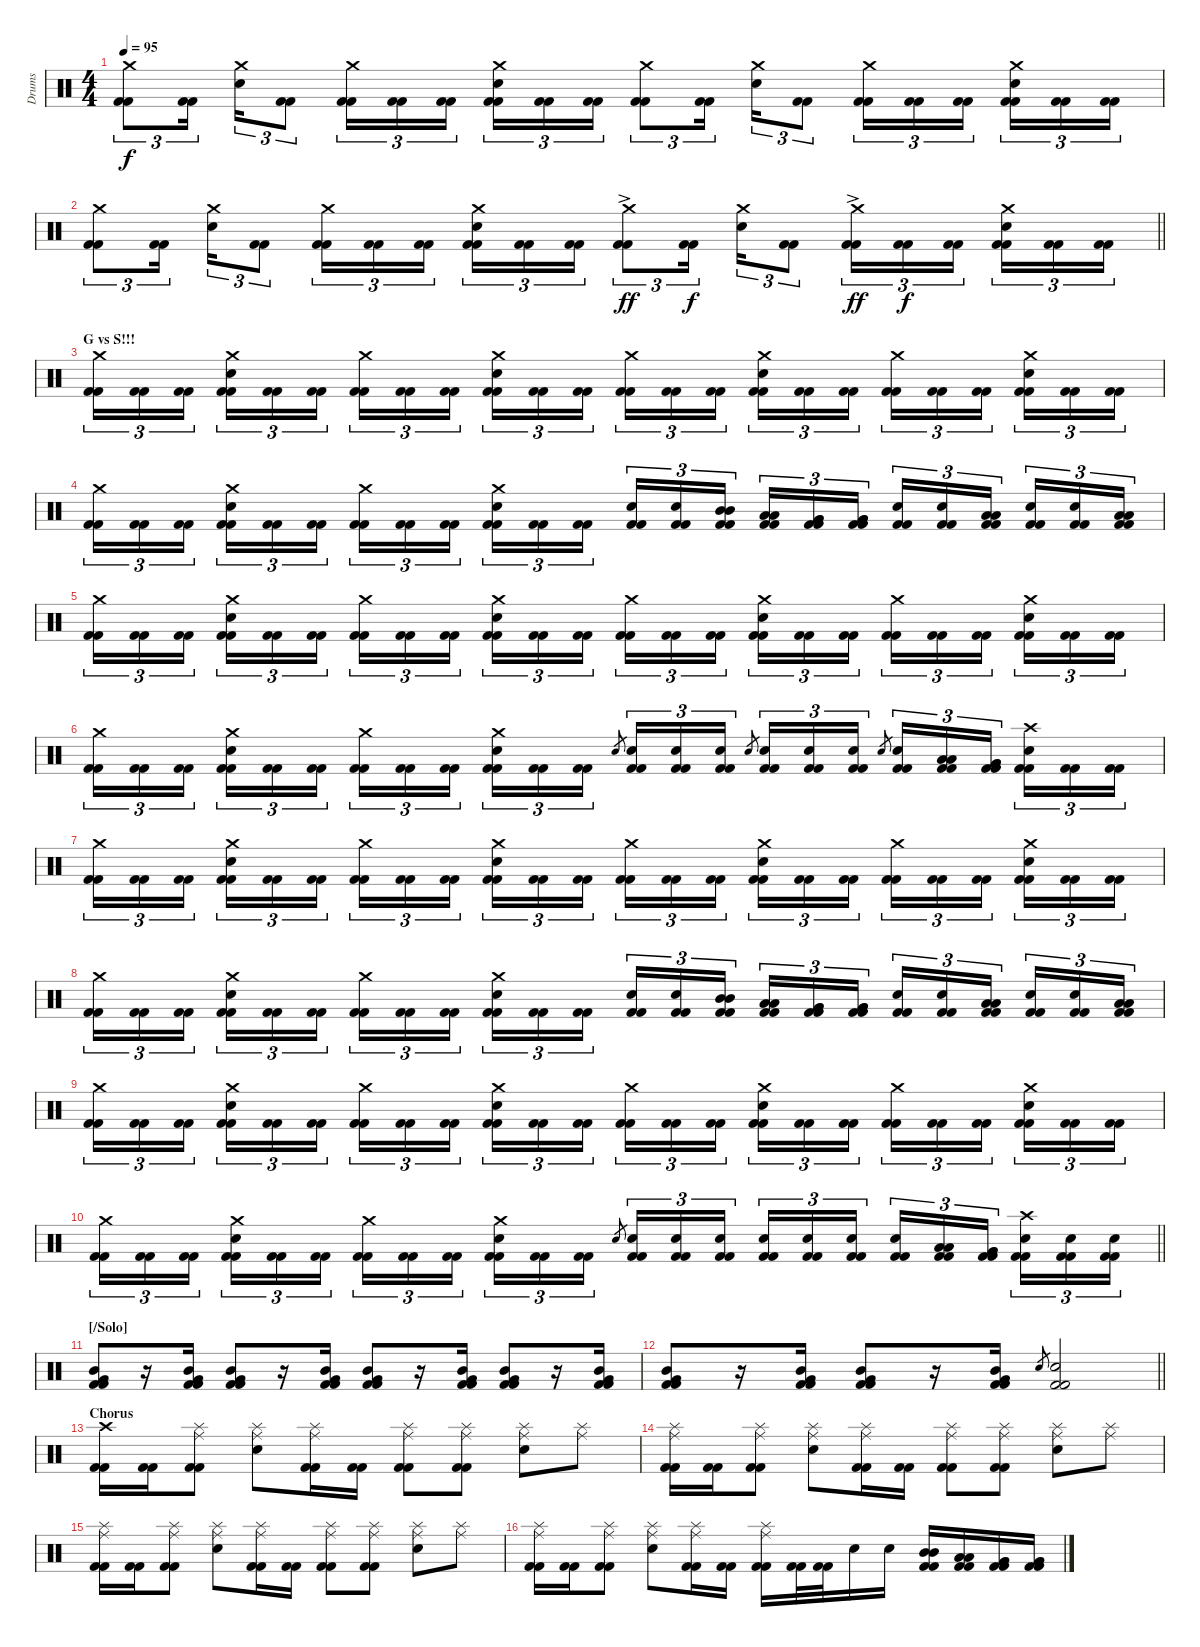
\track ("Drums" "Drums") {instrument percussion}
\staff {score}
\articulation defaults
\ts (4 4)
\tempo 95
\clef neutral
\ks c
("Crash medium (hit)" "Kick (hit) 2" "Kick (hit) 2").8{tu (3 2) dy f} ("Kick (hit) 2" "Kick (hit) 2").16{tu (3 2) beam splitsecondary} ("Crash medium (hit)" "Electric Snare (hit)").16{tu (3 2)} ("Kick (hit) 2" "Kick (hit) 2").8{tu (3 2)} ("Crash medium (hit)" "Kick (hit) 2" "Kick (hit) 2").16{tu (3 2)} ("Kick (hit) 2" "Kick (hit) 2").16{tu (3 2)} ("Kick (hit) 2" "Kick (hit) 2").16{tu (3 2) beam splitsecondary} ("Crash medium (hit)" "Electric Snare (hit)" "Kick (hit) 2" "Kick (hit) 2").16{tu (3 2)} ("Kick (hit) 2" "Kick (hit) 2").16{tu (3 2)} ("Kick (hit) 2" "Kick (hit) 2").16{tu (3 2)} ("Crash medium (hit)" "Kick (hit) 2" "Kick (hit) 2").8{tu (3 2)} ("Kick (hit) 2" "Kick (hit) 2").16{tu (3 2) beam splitsecondary} ("Crash medium (hit)" "Electric Snare (hit)").16{tu (3 2)} ("Kick (hit) 2" "Kick (hit) 2").8{tu (3 2)} ("Crash medium (hit)" "Kick (hit) 2" "Kick (hit) 2").16{tu (3 2)} ("Kick (hit) 2" "Kick (hit) 2").16{tu (3 2)} ("Kick (hit) 2" "Kick (hit) 2").16{tu (3 2) beam splitsecondary} ("Crash medium (hit)" "Electric Snare (hit)" "Kick (hit) 2" "Kick (hit) 2").16{tu (3 2)} ("Kick (hit) 2" "Kick (hit) 2").16{tu (3 2)} ("Kick (hit) 2" "Kick (hit) 2").16{tu (3 2)} |
\barLineRight lightlight
("Crash medium (hit)" "Kick (hit) 2" "Kick (hit) 2").8{tu (3 2)} ("Kick (hit) 2" "Kick (hit) 2").16{tu (3 2) beam splitsecondary} ("Crash medium (hit)" "Electric Snare (hit)").16{tu (3 2)} ("Kick (hit) 2" "Kick (hit) 2").8{tu (3 2)} ("Crash medium (hit)" "Kick (hit) 2" "Kick (hit) 2").16{tu (3 2)} ("Kick (hit) 2" "Kick (hit) 2").16{tu (3 2)} ("Kick (hit) 2" "Kick (hit) 2").16{tu (3 2) beam splitsecondary} ("Crash medium (hit)" "Electric Snare (hit)" "Kick (hit) 2" "Kick (hit) 2").16{tu (3 2)} ("Kick (hit) 2" "Kick (hit) 2").16{tu (3 2)} ("Kick (hit) 2" "Kick (hit) 2").16{tu (3 2)} ("Crash medium (hit)"{ac} "Kick (hit) 2" "Kick (hit) 2").8{tu (3 2) dy ff} ("Kick (hit) 2" "Kick (hit) 2").16{tu (3 2) dy f beam splitsecondary} ("Crash medium (hit)" "Electric Snare (hit)").16{tu (3 2)} ("Kick (hit) 2" "Kick (hit) 2").8{tu (3 2)} ("Crash medium (hit)"{ac} "Kick (hit) 2" "Kick (hit) 2").16{tu (3 2) dy ff} ("Kick (hit) 2" "Kick (hit) 2").16{tu (3 2) dy f} ("Kick (hit) 2" "Kick (hit) 2").16{tu (3 2) beam splitsecondary} ("Crash medium (hit)" "Electric Snare (hit)" "Kick (hit) 2" "Kick (hit) 2").16{tu (3 2)} ("Kick (hit) 2" "Kick (hit) 2").16{tu (3 2)} ("Kick (hit) 2" "Kick (hit) 2").16{tu (3 2)} |
\section ("" "G vs S!!!")
("Crash medium (hit)" "Kick (hit) 2" "Kick (hit) 2").16{tu (3 2)} ("Kick (hit) 2" "Kick (hit) 2").16{tu (3 2)} ("Kick (hit) 2" "Kick (hit) 2").16{tu (3 2) beam splitsecondary} ("Crash medium (hit)" "Electric Snare (hit)" "Kick (hit) 2" "Kick (hit) 2").16{tu (3 2)} ("Kick (hit) 2" "Kick (hit) 2").16{tu (3 2)} ("Kick (hit) 2" "Kick (hit) 2").16{tu (3 2)} ("Crash medium (hit)" "Kick (hit) 2" "Kick (hit) 2").16{tu (3 2)} ("Kick (hit) 2" "Kick (hit) 2").16{tu (3 2)} ("Kick (hit) 2" "Kick (hit) 2").16{tu (3 2) beam splitsecondary} ("Crash medium (hit)" "Electric Snare (hit)" "Kick (hit) 2" "Kick (hit) 2").16{tu (3 2)} ("Kick (hit) 2" "Kick (hit) 2").16{tu (3 2)} ("Kick (hit) 2" "Kick (hit) 2").16{tu (3 2)} ("Crash medium (hit)" "Kick (hit) 2" "Kick (hit) 2").16{tu (3 2)} ("Kick (hit) 2" "Kick (hit) 2").16{tu (3 2)} ("Kick (hit) 2" "Kick (hit) 2").16{tu (3 2) beam splitsecondary} ("Crash medium (hit)" "Electric Snare (hit)" "Kick (hit) 2" "Kick (hit) 2").16{tu (3 2)} ("Kick (hit) 2" "Kick (hit) 2").16{tu (3 2)} ("Kick (hit) 2" "Kick (hit) 2").16{tu (3 2)} ("Crash medium (hit)" "Kick (hit) 2" "Kick (hit) 2").16{tu (3 2)} ("Kick (hit) 2" "Kick (hit) 2").16{tu (3 2)} ("Kick (hit) 2" "Kick (hit) 2").16{tu (3 2) beam splitsecondary} ("Crash medium (hit)" "Electric Snare (hit)" "Kick (hit) 2" "Kick (hit) 2").16{tu (3 2)} ("Kick (hit) 2" "Kick (hit) 2").16{tu (3 2)} ("Kick (hit) 2" "Kick (hit) 2").16{tu (3 2)} |
("Crash medium (hit)" "Kick (hit) 2" "Kick (hit) 2").16{tu (3 2)} ("Kick (hit) 2" "Kick (hit) 2").16{tu (3 2)} ("Kick (hit) 2" "Kick (hit) 2").16{tu (3 2) beam splitsecondary} ("Crash medium (hit)" "Electric Snare (hit)" "Kick (hit) 2" "Kick (hit) 2").16{tu (3 2)} ("Kick (hit) 2" "Kick (hit) 2").16{tu (3 2)} ("Kick (hit) 2" "Kick (hit) 2").16{tu (3 2)} ("Crash medium (hit)" "Kick (hit) 2" "Kick (hit) 2").16{tu (3 2)} ("Kick (hit) 2" "Kick (hit) 2").16{tu (3 2)} ("Kick (hit) 2" "Kick (hit) 2").16{tu (3 2) beam splitsecondary} ("Crash medium (hit)" "Electric Snare (hit)" "Kick (hit) 2" "Kick (hit) 2").16{tu (3 2)} ("Kick (hit) 2" "Kick (hit) 2").16{tu (3 2)} ("Kick (hit) 2" "Kick (hit) 2").16{tu (3 2)} ("Electric Snare (hit)" "Kick (hit) 2" "Kick (hit) 2").16{tu (3 2)} ("Electric Snare (hit)" "Kick (hit) 2" "Kick (hit) 2").16{tu (3 2)} ("Mid Tom (hit)" "Mid Tom (hit)" "Kick (hit) 2" "Kick (hit) 2").16{tu (3 2) beam splitsecondary} ("Low Tom (hit)" "Low Tom (hit)" "Kick (hit) 2" "Kick (hit) 2").16{tu (3 2)} ("Very Low Tom (hit)" "Very Low Tom (hit)" "Kick (hit) 2" "Kick (hit) 2").16{tu (3 2)} ("Very Low Tom (hit)" "Very Low Tom (hit)" "Kick (hit) 2" "Kick (hit) 2").16{tu (3 2)} ("Electric Snare (hit)" "Kick (hit) 2" "Kick (hit) 2").16{tu (3 2)} ("Electric Snare (hit)" "Kick (hit) 2" "Kick (hit) 2").16{tu (3 2)} ("Low Tom (hit)" "Low Tom (hit)" "Kick (hit) 2" "Kick (hit) 2").16{tu (3 2) beam splitsecondary} ("Electric Snare (hit)" "Kick (hit) 2" "Kick (hit) 2").16{tu (3 2)} ("Electric Snare (hit)" "Kick (hit) 2" "Kick (hit) 2").16{tu (3 2)} ("Low Tom (hit)" "Low Tom (hit)" "Kick (hit) 2" "Kick (hit) 2").16{tu (3 2)} |
("Crash medium (hit)" "Kick (hit) 2" "Kick (hit) 2").16{tu (3 2)} ("Kick (hit) 2" "Kick (hit) 2").16{tu (3 2)} ("Kick (hit) 2" "Kick (hit) 2").16{tu (3 2) beam splitsecondary} ("Crash medium (hit)" "Electric Snare (hit)" "Kick (hit) 2" "Kick (hit) 2").16{tu (3 2)} ("Kick (hit) 2" "Kick (hit) 2").16{tu (3 2)} ("Kick (hit) 2" "Kick (hit) 2").16{tu (3 2)} ("Crash medium (hit)" "Kick (hit) 2" "Kick (hit) 2").16{tu (3 2)} ("Kick (hit) 2" "Kick (hit) 2").16{tu (3 2)} ("Kick (hit) 2" "Kick (hit) 2").16{tu (3 2) beam splitsecondary} ("Crash medium (hit)" "Electric Snare (hit)" "Kick (hit) 2" "Kick (hit) 2").16{tu (3 2)} ("Kick (hit) 2" "Kick (hit) 2").16{tu (3 2)} ("Kick (hit) 2" "Kick (hit) 2").16{tu (3 2)} ("Crash medium (hit)" "Kick (hit) 2" "Kick (hit) 2").16{tu (3 2)} ("Kick (hit) 2" "Kick (hit) 2").16{tu (3 2)} ("Kick (hit) 2" "Kick (hit) 2").16{tu (3 2) beam splitsecondary} ("Crash medium (hit)" "Electric Snare (hit)" "Kick (hit) 2" "Kick (hit) 2").16{tu (3 2)} ("Kick (hit) 2" "Kick (hit) 2").16{tu (3 2)} ("Kick (hit) 2" "Kick (hit) 2").16{tu (3 2)} ("Crash medium (hit)" "Kick (hit) 2" "Kick (hit) 2").16{tu (3 2)} ("Kick (hit) 2" "Kick (hit) 2").16{tu (3 2)} ("Kick (hit) 2" "Kick (hit) 2").16{tu (3 2) beam splitsecondary} ("Crash medium (hit)" "Electric Snare (hit)" "Kick (hit) 2" "Kick (hit) 2").16{tu (3 2)} ("Kick (hit) 2" "Kick (hit) 2").16{tu (3 2)} ("Kick (hit) 2" "Kick (hit) 2").16{tu (3 2)} |
("Crash medium (hit)" "Kick (hit) 2" "Kick (hit) 2").16{tu (3 2)} ("Kick (hit) 2" "Kick (hit) 2").16{tu (3 2)} ("Kick (hit) 2" "Kick (hit) 2").16{tu (3 2) beam splitsecondary} ("Crash medium (hit)" "Electric Snare (hit)" "Kick (hit) 2" "Kick (hit) 2").16{tu (3 2)} ("Kick (hit) 2" "Kick (hit) 2").16{tu (3 2)} ("Kick (hit) 2" "Kick (hit) 2").16{tu (3 2)} ("Crash medium (hit)" "Kick (hit) 2" "Kick (hit) 2").16{tu (3 2)} ("Kick (hit) 2" "Kick (hit) 2").16{tu (3 2)} ("Kick (hit) 2" "Kick (hit) 2").16{tu (3 2) beam splitsecondary} ("Crash medium (hit)" "Electric Snare (hit)" "Kick (hit) 2" "Kick (hit) 2").16{tu (3 2)} ("Kick (hit) 2" "Kick (hit) 2").16{tu (3 2)} ("Kick (hit) 2" "Kick (hit) 2").16{tu (3 2)} "Electric Snare (hit)".8{gr} ("Electric Snare (hit)" "Kick (hit) 2" "Kick (hit) 2").16{tu (3 2)} ("Electric Snare (hit)" "Kick (hit) 2" "Kick (hit) 2").16{tu (3 2)} ("Electric Snare (hit)" "Kick (hit) 2" "Kick (hit) 2").16{tu (3 2)} "Electric Snare (hit)".8{gr beam splitsecondary} ("Electric Snare (hit)" "Kick (hit) 2" "Kick (hit) 2").16{tu (3 2)} ("Electric Snare (hit)" "Kick (hit) 2" "Kick (hit) 2").16{tu (3 2)} ("Electric Snare (hit)" "Kick (hit) 2" "Kick (hit) 2").16{tu (3 2)} "Electric Snare (hit)".8{gr} ("Electric Snare (hit)" "Kick (hit) 2" "Kick (hit) 2").16{tu (3 2)} ("Low Tom (hit)" "Low Tom (hit)" "Kick (hit) 2" "Kick (hit) 2").16{tu (3 2)} ("Very Low Tom (hit)" "Very Low Tom (hit)" "Kick (hit) 2" "Kick (hit) 2").16{tu (3 2) beam splitsecondary} ("Crash high (hit)" "Electric Snare (hit)" "Kick (hit) 2" "Kick (hit) 2").16{tu (3 2)} ("Kick (hit) 2" "Kick (hit) 2").16{tu (3 2)} ("Kick (hit) 2" "Kick (hit) 2").16{tu (3 2)} |
("Crash medium (hit)" "Kick (hit) 2" "Kick (hit) 2").16{tu (3 2)} ("Kick (hit) 2" "Kick (hit) 2").16{tu (3 2)} ("Kick (hit) 2" "Kick (hit) 2").16{tu (3 2) beam splitsecondary} ("Crash medium (hit)" "Electric Snare (hit)" "Kick (hit) 2" "Kick (hit) 2").16{tu (3 2)} ("Kick (hit) 2" "Kick (hit) 2").16{tu (3 2)} ("Kick (hit) 2" "Kick (hit) 2").16{tu (3 2)} ("Crash medium (hit)" "Kick (hit) 2" "Kick (hit) 2").16{tu (3 2)} ("Kick (hit) 2" "Kick (hit) 2").16{tu (3 2)} ("Kick (hit) 2" "Kick (hit) 2").16{tu (3 2) beam splitsecondary} ("Crash medium (hit)" "Electric Snare (hit)" "Kick (hit) 2" "Kick (hit) 2").16{tu (3 2)} ("Kick (hit) 2" "Kick (hit) 2").16{tu (3 2)} ("Kick (hit) 2" "Kick (hit) 2").16{tu (3 2)} ("Crash medium (hit)" "Kick (hit) 2" "Kick (hit) 2").16{tu (3 2)} ("Kick (hit) 2" "Kick (hit) 2").16{tu (3 2)} ("Kick (hit) 2" "Kick (hit) 2").16{tu (3 2) beam splitsecondary} ("Crash medium (hit)" "Electric Snare (hit)" "Kick (hit) 2" "Kick (hit) 2").16{tu (3 2)} ("Kick (hit) 2" "Kick (hit) 2").16{tu (3 2)} ("Kick (hit) 2" "Kick (hit) 2").16{tu (3 2)} ("Crash medium (hit)" "Kick (hit) 2" "Kick (hit) 2").16{tu (3 2)} ("Kick (hit) 2" "Kick (hit) 2").16{tu (3 2)} ("Kick (hit) 2" "Kick (hit) 2").16{tu (3 2) beam splitsecondary} ("Crash medium (hit)" "Electric Snare (hit)" "Kick (hit) 2" "Kick (hit) 2").16{tu (3 2)} ("Kick (hit) 2" "Kick (hit) 2").16{tu (3 2)} ("Kick (hit) 2" "Kick (hit) 2").16{tu (3 2)} |
("Crash medium (hit)" "Kick (hit) 2" "Kick (hit) 2").16{tu (3 2)} ("Kick (hit) 2" "Kick (hit) 2").16{tu (3 2)} ("Kick (hit) 2" "Kick (hit) 2").16{tu (3 2) beam splitsecondary} ("Crash medium (hit)" "Electric Snare (hit)" "Kick (hit) 2" "Kick (hit) 2").16{tu (3 2)} ("Kick (hit) 2" "Kick (hit) 2").16{tu (3 2)} ("Kick (hit) 2" "Kick (hit) 2").16{tu (3 2)} ("Crash medium (hit)" "Kick (hit) 2" "Kick (hit) 2").16{tu (3 2)} ("Kick (hit) 2" "Kick (hit) 2").16{tu (3 2)} ("Kick (hit) 2" "Kick (hit) 2").16{tu (3 2) beam splitsecondary} ("Crash medium (hit)" "Electric Snare (hit)" "Kick (hit) 2" "Kick (hit) 2").16{tu (3 2)} ("Kick (hit) 2" "Kick (hit) 2").16{tu (3 2)} ("Kick (hit) 2" "Kick (hit) 2").16{tu (3 2)} ("Electric Snare (hit)" "Kick (hit) 2" "Kick (hit) 2").16{tu (3 2)} ("Electric Snare (hit)" "Kick (hit) 2" "Kick (hit) 2").16{tu (3 2)} ("Mid Tom (hit)" "Mid Tom (hit)" "Kick (hit) 2" "Kick (hit) 2").16{tu (3 2) beam splitsecondary} ("Low Tom (hit)" "Low Tom (hit)" "Kick (hit) 2" "Kick (hit) 2").16{tu (3 2)} ("Very Low Tom (hit)" "Very Low Tom (hit)" "Kick (hit) 2" "Kick (hit) 2").16{tu (3 2)} ("Very Low Tom (hit)" "Very Low Tom (hit)" "Kick (hit) 2" "Kick (hit) 2").16{tu (3 2)} ("Electric Snare (hit)" "Kick (hit) 2" "Kick (hit) 2").16{tu (3 2)} ("Electric Snare (hit)" "Kick (hit) 2" "Kick (hit) 2").16{tu (3 2)} ("Low Tom (hit)" "Low Tom (hit)" "Kick (hit) 2" "Kick (hit) 2").16{tu (3 2) beam splitsecondary} ("Electric Snare (hit)" "Kick (hit) 2" "Kick (hit) 2").16{tu (3 2)} ("Electric Snare (hit)" "Kick (hit) 2" "Kick (hit) 2").16{tu (3 2)} ("Low Tom (hit)" "Low Tom (hit)" "Kick (hit) 2" "Kick (hit) 2").16{tu (3 2)} |
("Crash medium (hit)" "Kick (hit) 2" "Kick (hit) 2").16{tu (3 2)} ("Kick (hit) 2" "Kick (hit) 2").16{tu (3 2)} ("Kick (hit) 2" "Kick (hit) 2").16{tu (3 2) beam splitsecondary} ("Crash medium (hit)" "Electric Snare (hit)" "Kick (hit) 2" "Kick (hit) 2").16{tu (3 2)} ("Kick (hit) 2" "Kick (hit) 2").16{tu (3 2)} ("Kick (hit) 2" "Kick (hit) 2").16{tu (3 2)} ("Crash medium (hit)" "Kick (hit) 2" "Kick (hit) 2").16{tu (3 2)} ("Kick (hit) 2" "Kick (hit) 2").16{tu (3 2)} ("Kick (hit) 2" "Kick (hit) 2").16{tu (3 2) beam splitsecondary} ("Crash medium (hit)" "Electric Snare (hit)" "Kick (hit) 2" "Kick (hit) 2").16{tu (3 2)} ("Kick (hit) 2" "Kick (hit) 2").16{tu (3 2)} ("Kick (hit) 2" "Kick (hit) 2").16{tu (3 2)} ("Crash medium (hit)" "Kick (hit) 2" "Kick (hit) 2").16{tu (3 2)} ("Kick (hit) 2" "Kick (hit) 2").16{tu (3 2)} ("Kick (hit) 2" "Kick (hit) 2").16{tu (3 2) beam splitsecondary} ("Crash medium (hit)" "Electric Snare (hit)" "Kick (hit) 2" "Kick (hit) 2").16{tu (3 2)} ("Kick (hit) 2" "Kick (hit) 2").16{tu (3 2)} ("Kick (hit) 2" "Kick (hit) 2").16{tu (3 2)} ("Crash medium (hit)" "Kick (hit) 2" "Kick (hit) 2").16{tu (3 2)} ("Kick (hit) 2" "Kick (hit) 2").16{tu (3 2)} ("Kick (hit) 2" "Kick (hit) 2").16{tu (3 2) beam splitsecondary} ("Crash medium (hit)" "Electric Snare (hit)" "Kick (hit) 2" "Kick (hit) 2").16{tu (3 2)} ("Kick (hit) 2" "Kick (hit) 2").16{tu (3 2)} ("Kick (hit) 2" "Kick (hit) 2").16{tu (3 2)} |
\barLineRight lightlight
("Crash medium (hit)" "Kick (hit) 2" "Kick (hit) 2").16{tu (3 2)} ("Kick (hit) 2" "Kick (hit) 2").16{tu (3 2)} ("Kick (hit) 2" "Kick (hit) 2").16{tu (3 2) beam splitsecondary} ("Crash medium (hit)" "Electric Snare (hit)" "Kick (hit) 2" "Kick (hit) 2").16{tu (3 2)} ("Kick (hit) 2" "Kick (hit) 2").16{tu (3 2)} ("Kick (hit) 2" "Kick (hit) 2").16{tu (3 2)} ("Crash medium (hit)" "Kick (hit) 2" "Kick (hit) 2").16{tu (3 2)} ("Kick (hit) 2" "Kick (hit) 2").16{tu (3 2)} ("Kick (hit) 2" "Kick (hit) 2").16{tu (3 2) beam splitsecondary} ("Crash medium (hit)" "Electric Snare (hit)" "Kick (hit) 2" "Kick (hit) 2").16{tu (3 2)} ("Kick (hit) 2" "Kick (hit) 2").16{tu (3 2)} ("Kick (hit) 2" "Kick (hit) 2").16{tu (3 2)} "Electric Snare (hit)".8{gr} ("Electric Snare (hit)" "Kick (hit) 2" "Kick (hit) 2").16{tu (3 2)} ("Electric Snare (hit)" "Kick (hit) 2" "Kick (hit) 2").16{tu (3 2)} ("Electric Snare (hit)" "Kick (hit) 2" "Kick (hit) 2").16{tu (3 2) beam splitsecondary} ("Electric Snare (hit)" "Kick (hit) 2" "Kick (hit) 2").16{tu (3 2)} ("Electric Snare (hit)" "Kick (hit) 2" "Kick (hit) 2").16{tu (3 2)} ("Electric Snare (hit)" "Kick (hit) 2" "Kick (hit) 2").16{tu (3 2)} ("Electric Snare (hit)" "Kick (hit) 2" "Kick (hit) 2").16{tu (3 2)} ("Low Tom (hit)" "Low Tom (hit)" "Kick (hit) 2" "Kick (hit) 2").16{tu (3 2)} ("Very Low Tom (hit)" "Very Low Tom (hit)" "Kick (hit) 2" "Kick (hit) 2").16{tu (3 2) beam splitsecondary} ("Crash high (hit)" "Electric Snare (hit)" "Kick (hit) 2" "Kick (hit) 2").16{tu (3 2)} ("Electric Snare (hit)" "Kick (hit) 2" "Kick (hit) 2").16{tu (3 2)} ("Electric Snare (hit)" "Kick (hit) 2" "Kick (hit) 2").16{tu (3 2)} |
\section ("" "[/Solo]")
("Mid Tom (hit)" "Very Low Tom (hit)" "Kick (hit) 2" "Kick (hit) 2").8 r.16 ("Mid Tom (hit)" "Very Low Tom (hit)" "Kick (hit) 2" "Kick (hit) 2").16 ("Mid Tom (hit)" "Very Low Tom (hit)" "Kick (hit) 2" "Kick (hit) 2").8 r.16 ("Mid Tom (hit)" "Very Low Tom (hit)" "Kick (hit) 2" "Kick (hit) 2").16 ("Mid Tom (hit)" "Very Low Tom (hit)" "Kick (hit) 2" "Kick (hit) 2").8 r.16 ("Mid Tom (hit)" "Very Low Tom (hit)" "Kick (hit) 2" "Kick (hit) 2").16 ("Mid Tom (hit)" "Very Low Tom (hit)" "Kick (hit) 2" "Kick (hit) 2").8 r.16 ("Mid Tom (hit)" "Very Low Tom (hit)" "Kick (hit) 2" "Kick (hit) 2").16 |
\barLineRight lightlight
("Mid Tom (hit)" "Very Low Tom (hit)" "Kick (hit) 2" "Kick (hit) 2").8 r.16 ("Mid Tom (hit)" "Very Low Tom (hit)" "Kick (hit) 2" "Kick (hit) 2").16 ("Mid Tom (hit)" "Very Low Tom (hit)" "Kick (hit) 2" "Kick (hit) 2").8 r.16 ("Mid Tom (hit)" "Very Low Tom (hit)" "Kick (hit) 2" "Kick (hit) 2").16 "Electric Snare (hit)".8{gr} ("Electric Snare (hit)" "Kick (hit) 2" "Kick (hit) 2").2 |
\section ("" "Chorus")
("Crash high (hit)" "Kick (hit) 2" "Kick (hit) 2").16 ("Kick (hit) 2" "Kick (hit) 2").16 ("Ride (middle)" "Splash (hit)" "Kick (hit) 2" "Kick (hit) 2").8 ("Ride (middle)" "Splash (hit)" "Electric Snare (hit)").8 ("Ride (middle)" "Splash (hit)" "Kick (hit) 2" "Kick (hit) 2").16 ("Kick (hit) 2" "Kick (hit) 2").16 ("Ride (middle)" "Splash (hit)" "Kick (hit) 2" "Kick (hit) 2").8 ("Ride (middle)" "Splash (hit)" "Kick (hit) 2" "Kick (hit) 2").8 ("Ride (middle)" "Splash (hit)" "Electric Snare (hit)").8 ("Ride (middle)" "Splash (hit)").8 |
("Ride (middle)" "Splash (hit)" "Kick (hit) 2" "Kick (hit) 2").16 ("Kick (hit) 2" "Kick (hit) 2").16 ("Ride (middle)" "Splash (hit)" "Kick (hit) 2" "Kick (hit) 2").8 ("Ride (middle)" "Splash (hit)" "Electric Snare (hit)").8 ("Ride (middle)" "Splash (hit)" "Kick (hit) 2" "Kick (hit) 2").16 ("Kick (hit) 2" "Kick (hit) 2").16 ("Ride (middle)" "Splash (hit)" "Kick (hit) 2" "Kick (hit) 2").8 ("Ride (middle)" "Splash (hit)" "Kick (hit) 2" "Kick (hit) 2").8 ("Ride (middle)" "Splash (hit)" "Electric Snare (hit)").8 ("Ride (middle)" "Splash (hit)").8 |
("Ride (middle)" "Splash (hit)" "Kick (hit) 2" "Kick (hit) 2").16 ("Kick (hit) 2" "Kick (hit) 2").16 ("Ride (middle)" "Splash (hit)" "Kick (hit) 2" "Kick (hit) 2").8 ("Ride (middle)" "Splash (hit)" "Electric Snare (hit)").8 ("Ride (middle)" "Splash (hit)" "Kick (hit) 2" "Kick (hit) 2").16 ("Kick (hit) 2" "Kick (hit) 2").16 ("Ride (middle)" "Splash (hit)" "Kick (hit) 2" "Kick (hit) 2").8 ("Ride (middle)" "Splash (hit)" "Kick (hit) 2" "Kick (hit) 2").8 ("Ride (middle)" "Splash (hit)" "Electric Snare (hit)").8 ("Ride (middle)" "Splash (hit)").8 |
("Ride (middle)" "Splash (hit)" "Kick (hit) 2" "Kick (hit) 2").16 ("Kick (hit) 2" "Kick (hit) 2").16 ("Ride (middle)" "Splash (hit)" "Kick (hit) 2" "Kick (hit) 2").8 ("Ride (middle)" "Splash (hit)" "Electric Snare (hit)").8 ("Ride (middle)" "Splash (hit)" "Kick (hit) 2" "Kick (hit) 2").16 ("Kick (hit) 2" "Kick (hit) 2").16 ("Ride (middle)" "Splash (hit)" "Kick (hit) 2" "Kick (hit) 2").16 ("Kick (hit) 2" "Kick (hit) 2").32 ("Kick (hit) 2" "Kick (hit) 2").32 "Electric Snare (hit)".16 "Electric Snare (hit)".16 ("Mid Tom (hit)" "Mid Tom (hit)" "Kick (hit) 2" "Kick (hit) 2").16 ("Low Tom (hit)" "Low Tom (hit)" "Kick (hit) 2" "Kick (hit) 2").16 ("Very Low Tom (hit)" "Very Low Tom (hit)" "Kick (hit) 2" "Kick (hit) 2").16 ("Very Low Tom (hit)" "Very Low Tom (hit)" "Kick (hit) 2" "Kick (hit) 2").16
